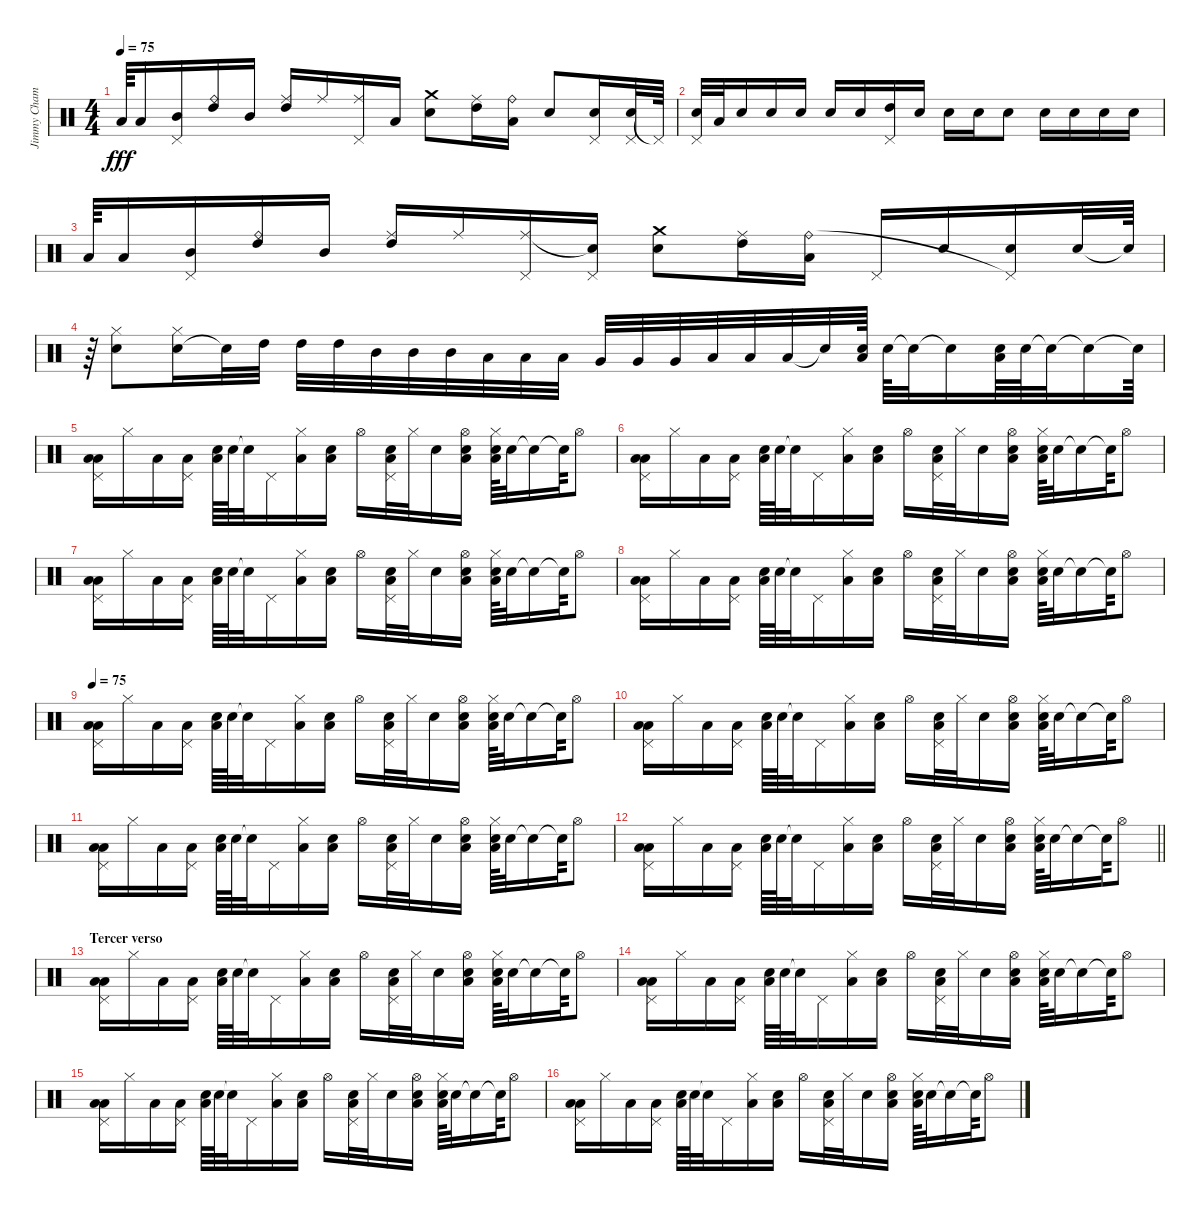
\track ("Jimmy Chamberlin" "Jimmy Cham") {instrument percussion}
\staff {score}
\articulation defaults
\ts (4 4)
\tempo 75
\clef neutral
\ks c "Low Tom (hit)".64{dy fff} "Low Tom (hit)".16
("Mid Tom (hit)" "Pedal Hi-Hat (hit)").16 ("High Tom (hit)" "Ride (bell)").16 "Mid Tom (hit)".16 ("High Tom (hit)" "Ride (middle)").16 "Ride (middle)".16 ("Ride (middle)" "Pedal Hi-Hat (hit)").16 "Low Tom (hit)".16 ("Electric Snare (hit)" "Crash medium (hit)").8 ("High Tom (hit)" "Ride (middle)").16 ("Low Tom (hit)" "Ride (bell)").16 "Electric Snare (hit)".8 ("Electric Snare (hit)" "Pedal Hi-Hat (hit)").16 ("Electric Snare (hit)" "Pedal Hi-Hat (hit)").32 "Pedal Hi-Hat (hit)"{t}.64 |
("Electric Snare (hit)" "Pedal Hi-Hat (hit)").32 "Low Tom (hit)".32 "Snare (hit) 2".16 "Electric Snare (hit)".16 "Snare (hit) 2".16 "Snare (hit) 2".16 "Snare (hit) 2".16 ("Pedal Hi-Hat (hit)" "High Tom (hit)").16 "Electric Snare (hit)".16 "Electric Snare (hit)".16 "Electric Snare (hit)".16 "Snare (hit) 2".8 "Electric Snare (hit)".16 "Electric Snare (hit)".16 "Electric Snare (hit)".16 "Snare (hit) 2".16 |
"Low Tom (hit)".64 "Low Tom (hit)".16 ("Mid Tom (hit)" "Pedal Hi-Hat (hit)").16 ("High Tom (hit)" "Ride (bell)").16 "Mid Tom (hit)".16 ("High Tom (hit)" "Ride (middle)").16 "Ride (middle)".16 ("Ride (middle)" "Pedal Hi-Hat (hit)").16 ("Snare (hit)"{t} "Pedal Hi-Hat (hit)").16 ("Electric Snare (hit)" "Crash medium (hit)").8 ("High Tom (hit)" "Ride (middle)").16 ("Low Tom (hit)" "Ride (bell)").16 "Pedal Hi-Hat (hit)".16 "Snare (hit) 2".16 ("Snare (hit) 2" "Pedal Hi-Hat (hit)"{t}).16 "Snare (hit) 2".32 "Snare (hit)"{t}.64 |
r.64 ("Electric Snare (hit)" "Hi-Hat (closed)").8 ("Electric Snare (hit)" "Hi-Hat (closed)").16 "Snare (hit)"{t}.32 "High Tom (hit)".32 "High Tom (hit)".32 "High Tom (hit)".32 "Mid Tom (hit)".32 "Mid Tom (hit)".32 "Mid Tom (hit)".32 "Low Tom (hit)".32 "Low Tom (hit)".32 "Low Tom (hit)".32 "Very Low Tom (hit)".32 "Very Low Tom (hit)".32 "Very Low Tom (hit)".32 "Low Floor Tom (hit)".32 "Low Floor Tom (hit)".32 "Low Floor Tom (hit)".32 "Snare (hit) 2"{t}.32 ("Snare (hit) 2" "Low Tom (hit)").64 "Electric Snare (hit)".64 "Snare (hit)"{t}.32 "Snare (hit)"{t}.16 ("Snare (hit) 2" "Low Tom (hit)").64 "Electric Snare (hit)".64 "Snare (hit)"{t}.32 "Snare (hit)"{t}.16 "Snare (hit)"{t}.64 |
("Low Floor Tom (hit)" "Low Tom (hit)" "Pedal Hi-Hat (hit)").16 "Hi-Hat (closed)".16 "Low Floor Tom (hit)".16 ("Low Floor Tom (hit)" "Pedal Hi-Hat (hit)").16 ("Low Floor Tom (hit)" "Electric Snare (hit)").64 "Electric Snare (hit)".64 "Snare (hit)"{t}.32 "Pedal Hi-Hat (hit)".16 ("Low Floor Tom (hit)" "Hi-Hat (closed)").16 ("Low Floor Tom (hit)" "Electric Snare (hit)").16 "Hi-Hat (open)".16 ("Low Floor Tom (hit)" "Pedal Hi-Hat (hit)" "Electric Snare (hit)").32 "Hi-Hat (closed)".32 "Electric Snare (hit)".16 ("Low Floor Tom (hit)" "Hi-Hat (open)" "Snare (hit) 2").16 ("Low Floor Tom (hit)" "Hi-Hat (closed)" "Electric Snare (hit)").64 "Electric Snare (hit)".32 "Snare (hit)"{t}.16 "Snare (hit)"{t}.64 "Hi-Hat (open)".8 |
("Low Floor Tom (hit)" "Low Tom (hit)" "Pedal Hi-Hat (hit)").16 "Hi-Hat (closed)".16 "Low Floor Tom (hit)".16 ("Low Floor Tom (hit)" "Pedal Hi-Hat (hit)").16 ("Low Floor Tom (hit)" "Electric Snare (hit)").64 "Electric Snare (hit)".64 "Snare (hit)"{t}.32 "Pedal Hi-Hat (hit)".16 ("Low Floor Tom (hit)" "Hi-Hat (closed)").16 ("Low Floor Tom (hit)" "Electric Snare (hit)").16 "Hi-Hat (open)".16 ("Low Floor Tom (hit)" "Pedal Hi-Hat (hit)" "Electric Snare (hit)").32 "Hi-Hat (closed)".32 "Electric Snare (hit)".16 ("Low Floor Tom (hit)" "Hi-Hat (open)" "Snare (hit) 2").16 ("Low Floor Tom (hit)" "Hi-Hat (closed)" "Electric Snare (hit)").64 "Electric Snare (hit)".32 "Snare (hit)"{t}.16 "Snare (hit)"{t}.64 "Hi-Hat (open)".8 |
("Low Floor Tom (hit)" "Low Tom (hit)" "Pedal Hi-Hat (hit)").16 "Hi-Hat (closed)".16 "Low Floor Tom (hit)".16 ("Low Floor Tom (hit)" "Pedal Hi-Hat (hit)").16 ("Low Floor Tom (hit)" "Electric Snare (hit)").64 "Electric Snare (hit)".64 "Snare (hit)"{t}.32 "Pedal Hi-Hat (hit)".16 ("Low Floor Tom (hit)" "Hi-Hat (closed)").16 ("Low Floor Tom (hit)" "Electric Snare (hit)").16 "Hi-Hat (open)".16 ("Low Floor Tom (hit)" "Pedal Hi-Hat (hit)" "Electric Snare (hit)").32 "Hi-Hat (closed)".32 "Electric Snare (hit)".16 ("Low Floor Tom (hit)" "Hi-Hat (open)" "Snare (hit) 2").16 ("Low Floor Tom (hit)" "Hi-Hat (closed)" "Electric Snare (hit)").64 "Electric Snare (hit)".32 "Snare (hit)"{t}.16 "Snare (hit)"{t}.64 "Hi-Hat (open)".8 |
("Low Floor Tom (hit)" "Low Tom (hit)" "Pedal Hi-Hat (hit)").16 "Hi-Hat (closed)".16 "Low Floor Tom (hit)".16 ("Low Floor Tom (hit)" "Pedal Hi-Hat (hit)").16 ("Low Floor Tom (hit)" "Electric Snare (hit)").64 "Electric Snare (hit)".64 "Snare (hit)"{t}.32 "Pedal Hi-Hat (hit)".16 ("Low Floor Tom (hit)" "Hi-Hat (closed)").16 ("Low Floor Tom (hit)" "Electric Snare (hit)").16 "Hi-Hat (open)".16 ("Low Floor Tom (hit)" "Pedal Hi-Hat (hit)" "Electric Snare (hit)").32 "Hi-Hat (closed)".32 "Electric Snare (hit)".16 ("Low Floor Tom (hit)" "Hi-Hat (open)" "Snare (hit) 2").16 ("Low Floor Tom (hit)" "Hi-Hat (closed)" "Electric Snare (hit)").64 "Electric Snare (hit)".32 "Snare (hit)"{t}.16 "Snare (hit)"{t}.64 "Hi-Hat (open)".8 |
\tempo 75
("Low Floor Tom (hit)" "Low Tom (hit)" "Pedal Hi-Hat (hit)").16 "Hi-Hat (closed)".16 "Low Floor Tom (hit)".16 ("Low Floor Tom (hit)" "Pedal Hi-Hat (hit)").16 ("Low Floor Tom (hit)" "Electric Snare (hit)").64 "Electric Snare (hit)".64 "Snare (hit)"{t}.32 "Pedal Hi-Hat (hit)".16 ("Low Floor Tom (hit)" "Hi-Hat (closed)").16 ("Low Floor Tom (hit)" "Electric Snare (hit)").16 "Hi-Hat (open)".16 ("Low Floor Tom (hit)" "Pedal Hi-Hat (hit)" "Electric Snare (hit)").32 "Hi-Hat (closed)".32 "Electric Snare (hit)".16 ("Low Floor Tom (hit)" "Hi-Hat (open)" "Snare (hit) 2").16 ("Low Floor Tom (hit)" "Hi-Hat (closed)" "Electric Snare (hit)").64 "Electric Snare (hit)".32 "Snare (hit)"{t}.16 "Snare (hit)"{t}.64 "Hi-Hat (open)".8 |
("Low Floor Tom (hit)" "Low Tom (hit)" "Pedal Hi-Hat (hit)").16 "Hi-Hat (closed)".16 "Low Floor Tom (hit)".16 ("Low Floor Tom (hit)" "Pedal Hi-Hat (hit)").16 ("Low Floor Tom (hit)" "Electric Snare (hit)").64 "Electric Snare (hit)".64 "Snare (hit)"{t}.32 "Pedal Hi-Hat (hit)".16 ("Low Floor Tom (hit)" "Hi-Hat (closed)").16 ("Low Floor Tom (hit)" "Electric Snare (hit)").16 "Hi-Hat (open)".16 ("Low Floor Tom (hit)" "Pedal Hi-Hat (hit)" "Electric Snare (hit)").32 "Hi-Hat (closed)".32 "Electric Snare (hit)".16 ("Low Floor Tom (hit)" "Hi-Hat (open)" "Snare (hit) 2").16 ("Low Floor Tom (hit)" "Hi-Hat (closed)" "Electric Snare (hit)").64 "Electric Snare (hit)".32 "Snare (hit)"{t}.16 "Snare (hit)"{t}.64 "Hi-Hat (open)".8 |
("Low Floor Tom (hit)" "Low Tom (hit)" "Pedal Hi-Hat (hit)").16 "Hi-Hat (closed)".16 "Low Floor Tom (hit)".16 ("Low Floor Tom (hit)" "Pedal Hi-Hat (hit)").16 ("Low Floor Tom (hit)" "Electric Snare (hit)").64 "Electric Snare (hit)".64 "Snare (hit)"{t}.32 "Pedal Hi-Hat (hit)".16 ("Low Floor Tom (hit)" "Hi-Hat (closed)").16 ("Low Floor Tom (hit)" "Electric Snare (hit)").16 "Hi-Hat (open)".16 ("Low Floor Tom (hit)" "Pedal Hi-Hat (hit)" "Electric Snare (hit)").32 "Hi-Hat (closed)".32 "Electric Snare (hit)".16 ("Low Floor Tom (hit)" "Hi-Hat (open)" "Snare (hit) 2").16 ("Low Floor Tom (hit)" "Hi-Hat (closed)" "Electric Snare (hit)").64 "Electric Snare (hit)".32 "Snare (hit)"{t}.16 "Snare (hit)"{t}.64 "Hi-Hat (open)".8 |
\barLineRight lightlight
("Low Floor Tom (hit)" "Low Tom (hit)" "Pedal Hi-Hat (hit)").16 "Hi-Hat (closed)".16 "Low Floor Tom (hit)".16 ("Low Floor Tom (hit)" "Pedal Hi-Hat (hit)").16 ("Low Floor Tom (hit)" "Electric Snare (hit)").64 "Electric Snare (hit)".64 "Snare (hit)"{t}.32 "Pedal Hi-Hat (hit)".16 ("Low Floor Tom (hit)" "Hi-Hat (closed)").16 ("Low Floor Tom (hit)" "Electric Snare (hit)").16 "Hi-Hat (open)".16 ("Low Floor Tom (hit)" "Pedal Hi-Hat (hit)" "Electric Snare (hit)").32 "Hi-Hat (closed)".32 "Electric Snare (hit)".16 ("Low Floor Tom (hit)" "Hi-Hat (open)" "Snare (hit) 2").16 ("Low Floor Tom (hit)" "Hi-Hat (closed)" "Electric Snare (hit)").64 "Electric Snare (hit)".32 "Snare (hit)"{t}.16 "Snare (hit)"{t}.64 "Hi-Hat (open)".8 |
\section ("" "Tercer verso")
("Low Floor Tom (hit)" "Low Tom (hit)" "Pedal Hi-Hat (hit)").16 "Hi-Hat (closed)".16 "Low Floor Tom (hit)".16 ("Low Floor Tom (hit)" "Pedal Hi-Hat (hit)").16 ("Low Floor Tom (hit)" "Electric Snare (hit)").64 "Electric Snare (hit)".64 "Snare (hit)"{t}.32 "Pedal Hi-Hat (hit)".16 ("Low Floor Tom (hit)" "Hi-Hat (closed)").16 ("Low Floor Tom (hit)" "Electric Snare (hit)").16 "Hi-Hat (open)".16 ("Low Floor Tom (hit)" "Pedal Hi-Hat (hit)" "Electric Snare (hit)").32 "Hi-Hat (closed)".32 "Electric Snare (hit)".16 ("Low Floor Tom (hit)" "Hi-Hat (open)" "Snare (hit) 2").16 ("Low Floor Tom (hit)" "Hi-Hat (closed)" "Electric Snare (hit)").64 "Electric Snare (hit)".32 "Snare (hit)"{t}.16 "Snare (hit)"{t}.64 "Hi-Hat (open)".8 |
("Low Floor Tom (hit)" "Low Tom (hit)" "Pedal Hi-Hat (hit)").16 "Hi-Hat (closed)".16 "Low Floor Tom (hit)".16 ("Low Floor Tom (hit)" "Pedal Hi-Hat (hit)").16 ("Low Floor Tom (hit)" "Electric Snare (hit)").64 "Electric Snare (hit)".64 "Snare (hit)"{t}.32 "Pedal Hi-Hat (hit)".16 ("Low Floor Tom (hit)" "Hi-Hat (closed)").16 ("Low Floor Tom (hit)" "Electric Snare (hit)").16 "Hi-Hat (open)".16 ("Low Floor Tom (hit)" "Pedal Hi-Hat (hit)" "Electric Snare (hit)").32 "Hi-Hat (closed)".32 "Electric Snare (hit)".16 ("Low Floor Tom (hit)" "Hi-Hat (open)" "Snare (hit) 2").16 ("Low Floor Tom (hit)" "Hi-Hat (closed)" "Electric Snare (hit)").64 "Electric Snare (hit)".32 "Snare (hit)"{t}.16 "Snare (hit)"{t}.64 "Hi-Hat (open)".8 |
("Low Floor Tom (hit)" "Low Tom (hit)" "Pedal Hi-Hat (hit)").16 "Hi-Hat (closed)".16 "Low Floor Tom (hit)".16 ("Low Floor Tom (hit)" "Pedal Hi-Hat (hit)").16 ("Low Floor Tom (hit)" "Electric Snare (hit)").64 "Electric Snare (hit)".64 "Snare (hit)"{t}.32 "Pedal Hi-Hat (hit)".16 ("Low Floor Tom (hit)" "Hi-Hat (closed)").16 ("Low Floor Tom (hit)" "Electric Snare (hit)").16 "Hi-Hat (open)".16 ("Low Floor Tom (hit)" "Pedal Hi-Hat (hit)" "Electric Snare (hit)").32 "Hi-Hat (closed)".32 "Electric Snare (hit)".16 ("Low Floor Tom (hit)" "Hi-Hat (open)" "Snare (hit) 2").16 ("Low Floor Tom (hit)" "Hi-Hat (closed)" "Electric Snare (hit)").64 "Electric Snare (hit)".32 "Snare (hit)"{t}.16 "Snare (hit)"{t}.64 "Hi-Hat (open)".8 |
("Low Floor Tom (hit)" "Low Tom (hit)" "Pedal Hi-Hat (hit)").16 "Hi-Hat (closed)".16 "Low Floor Tom (hit)".16 ("Low Floor Tom (hit)" "Pedal Hi-Hat (hit)").16 ("Low Floor Tom (hit)" "Electric Snare (hit)").64 "Electric Snare (hit)".64 "Snare (hit)"{t}.32 "Pedal Hi-Hat (hit)".16 ("Low Floor Tom (hit)" "Hi-Hat (closed)").16 ("Low Floor Tom (hit)" "Electric Snare (hit)").16 "Hi-Hat (open)".16 ("Low Floor Tom (hit)" "Pedal Hi-Hat (hit)" "Electric Snare (hit)").32 "Hi-Hat (closed)".32 "Electric Snare (hit)".16 ("Low Floor Tom (hit)" "Hi-Hat (open)" "Snare (hit) 2").16 ("Low Floor Tom (hit)" "Hi-Hat (closed)" "Electric Snare (hit)").64 "Electric Snare (hit)".32 "Snare (hit)"{t}.16 "Snare (hit)"{t}.64 "Hi-Hat (open)".8
